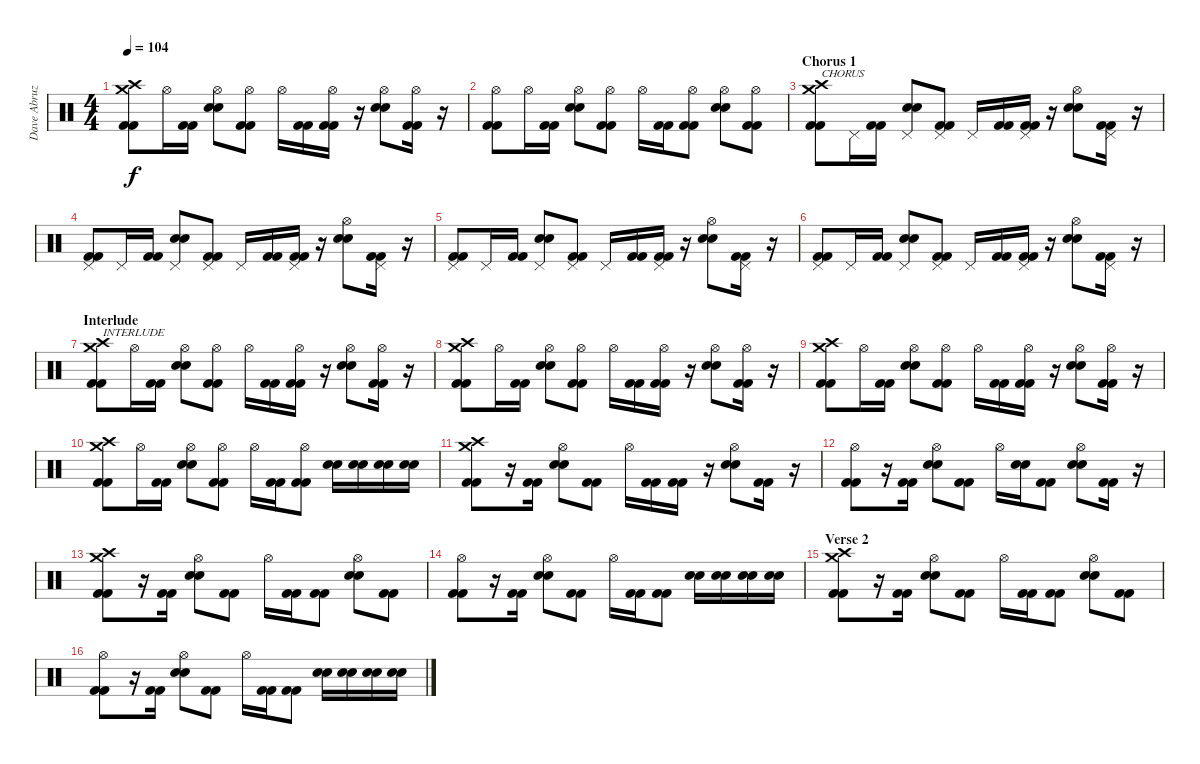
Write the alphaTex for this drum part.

\track ("Dave Abruzzese" "Dave Abruz") {instrument percussion}
\staff {score}
\articulation defaults
\ts (4 4)
\tempo 104
\clef neutral
\ks c
("Crash medium (hit)" "Kick (hit) 2" "Kick (hit) 2" "Crash high (hit)").8{dy f} "Hi-Hat (open)".16 ("Kick (hit) 2" "Kick (hit) 2").16 ("Electric Snare (hit)" "Electric Snare (hit)" "Hi-Hat (open)").8 ("Kick (hit) 2" "Kick (hit) 2" "Hi-Hat (open)").8 "Hi-Hat (open)".16 ("Kick (hit) 2" "Kick (hit) 2").16 ("Kick (hit) 2" "Kick (hit) 2" "Hi-Hat (open)").16 r.16 ("Electric Snare (hit)" "Electric Snare (hit)" "Hi-Hat (open)").8 ("Kick (hit) 2" "Kick (hit) 2" "Hi-Hat (open)").16 r.16 |
("Kick (hit) 2" "Kick (hit) 2" "Hi-Hat (open)").8 "Hi-Hat (open)".16 ("Kick (hit) 2" "Kick (hit) 2").16 ("Electric Snare (hit)" "Electric Snare (hit)" "Hi-Hat (open)").8 ("Kick (hit) 2" "Kick (hit) 2" "Hi-Hat (open)").8 "Hi-Hat (open)".16 ("Kick (hit) 2" "Kick (hit) 2").16 ("Kick (hit) 2" "Kick (hit) 2" "Hi-Hat (open)").8 ("Electric Snare (hit)" "Electric Snare (hit)" "Hi-Hat (open)").8 ("Kick (hit) 2" "Kick (hit) 2" "Hi-Hat (open)").8 |
\section ("" "Chorus 1")
("Crash medium (hit)" "Kick (hit) 2" "Kick (hit) 2" "Crash high (hit)").8{txt "CHORUS"} "Pedal Hi-Hat (hit)".16 ("Kick (hit) 2" "Kick (hit) 2").16 ("Electric Snare (hit)" "Electric Snare (hit)" "Pedal Hi-Hat (hit)").8 ("Kick (hit) 2" "Kick (hit) 2" "Pedal Hi-Hat (hit)").8 "Pedal Hi-Hat (hit)".16 ("Kick (hit) 2" "Kick (hit) 2").16 ("Kick (hit) 2" "Kick (hit) 2" "Pedal Hi-Hat (hit)").16 r.16 ("Electric Snare (hit)" "Electric Snare (hit)" "Hi-Hat (open)").8 ("Kick (hit) 2" "Kick (hit) 2" "Pedal Hi-Hat (hit)").16 r.16 |
("Kick (hit) 2" "Kick (hit) 2" "Pedal Hi-Hat (hit)").8 "Pedal Hi-Hat (hit)".16 ("Kick (hit) 2" "Kick (hit) 2").16 ("Electric Snare (hit)" "Electric Snare (hit)" "Pedal Hi-Hat (hit)").8 ("Kick (hit) 2" "Kick (hit) 2" "Pedal Hi-Hat (hit)").8 "Pedal Hi-Hat (hit)".16 ("Kick (hit) 2" "Kick (hit) 2").16 ("Kick (hit) 2" "Kick (hit) 2" "Pedal Hi-Hat (hit)").16 r.16 ("Electric Snare (hit)" "Electric Snare (hit)" "Hi-Hat (open)").8 ("Kick (hit) 2" "Kick (hit) 2" "Pedal Hi-Hat (hit)").16 r.16 |
("Kick (hit) 2" "Kick (hit) 2" "Pedal Hi-Hat (hit)").8 "Pedal Hi-Hat (hit)".16 ("Kick (hit) 2" "Kick (hit) 2").16 ("Electric Snare (hit)" "Electric Snare (hit)" "Pedal Hi-Hat (hit)").8 ("Kick (hit) 2" "Kick (hit) 2" "Pedal Hi-Hat (hit)").8 "Pedal Hi-Hat (hit)".16 ("Kick (hit) 2" "Kick (hit) 2").16 ("Kick (hit) 2" "Kick (hit) 2" "Pedal Hi-Hat (hit)").16 r.16 ("Electric Snare (hit)" "Electric Snare (hit)" "Hi-Hat (open)").8 ("Kick (hit) 2" "Kick (hit) 2" "Pedal Hi-Hat (hit)").16 r.16 |
("Kick (hit) 2" "Kick (hit) 2" "Pedal Hi-Hat (hit)").8 "Pedal Hi-Hat (hit)".16 ("Kick (hit) 2" "Kick (hit) 2").16 ("Electric Snare (hit)" "Electric Snare (hit)" "Pedal Hi-Hat (hit)").8 ("Kick (hit) 2" "Kick (hit) 2" "Pedal Hi-Hat (hit)").8 "Pedal Hi-Hat (hit)".16 ("Kick (hit) 2" "Kick (hit) 2").16 ("Kick (hit) 2" "Kick (hit) 2" "Pedal Hi-Hat (hit)").16 r.16 ("Electric Snare (hit)" "Electric Snare (hit)" "Hi-Hat (open)").8 ("Kick (hit) 2" "Kick (hit) 2" "Pedal Hi-Hat (hit)").16 r.16 |
\section ("" "Interlude")
("Crash medium (hit)" "Kick (hit) 2" "Kick (hit) 2" "Crash high (hit)").8{txt "INTERLUDE"} "Hi-Hat (open)".16 ("Kick (hit) 2" "Kick (hit) 2").16 ("Electric Snare (hit)" "Electric Snare (hit)" "Hi-Hat (open)").8 ("Kick (hit) 2" "Kick (hit) 2" "Hi-Hat (open)").8 "Hi-Hat (open)".16 ("Kick (hit) 2" "Kick (hit) 2").16 ("Kick (hit) 2" "Kick (hit) 2" "Hi-Hat (open)").16 r.16 ("Electric Snare (hit)" "Electric Snare (hit)" "Hi-Hat (open)").8 ("Kick (hit) 2" "Kick (hit) 2" "Hi-Hat (open)").16 r.16 |
("Crash medium (hit)" "Kick (hit) 2" "Kick (hit) 2" "Crash high (hit)").8 "Hi-Hat (open)".16 ("Kick (hit) 2" "Kick (hit) 2").16 ("Electric Snare (hit)" "Electric Snare (hit)" "Hi-Hat (open)").8 ("Kick (hit) 2" "Kick (hit) 2" "Hi-Hat (open)").8 "Hi-Hat (open)".16 ("Kick (hit) 2" "Kick (hit) 2").16 ("Kick (hit) 2" "Kick (hit) 2" "Hi-Hat (open)").16 r.16 ("Electric Snare (hit)" "Electric Snare (hit)" "Hi-Hat (open)").8 ("Kick (hit) 2" "Kick (hit) 2" "Hi-Hat (open)").16 r.16 |
("Crash medium (hit)" "Kick (hit) 2" "Kick (hit) 2" "Crash high (hit)").8 "Hi-Hat (open)".16 ("Kick (hit) 2" "Kick (hit) 2").16 ("Electric Snare (hit)" "Electric Snare (hit)" "Hi-Hat (open)").8 ("Kick (hit) 2" "Kick (hit) 2" "Hi-Hat (open)").8 "Hi-Hat (open)".16 ("Kick (hit) 2" "Kick (hit) 2").16 ("Kick (hit) 2" "Kick (hit) 2" "Hi-Hat (open)").16 r.16 ("Electric Snare (hit)" "Electric Snare (hit)" "Hi-Hat (open)").8 ("Kick (hit) 2" "Kick (hit) 2" "Hi-Hat (open)").16 r.16 |
("Crash medium (hit)" "Kick (hit) 2" "Kick (hit) 2" "Crash high (hit)").8 "Hi-Hat (open)".16 ("Kick (hit) 2" "Kick (hit) 2").16 ("Electric Snare (hit)" "Electric Snare (hit)" "Hi-Hat (open)").8 ("Kick (hit) 2" "Kick (hit) 2" "Hi-Hat (open)").8 "Hi-Hat (open)".16 ("Kick (hit) 2" "Kick (hit) 2").16 ("Kick (hit) 2" "Kick (hit) 2" "Hi-Hat (open)").8 ("Electric Snare (hit)" "Electric Snare (hit)").16 ("Electric Snare (hit)" "Electric Snare (hit)").16 ("Electric Snare (hit)" "Electric Snare (hit)").16 ("Electric Snare (hit)" "Electric Snare (hit)").16 |
("Crash medium (hit)" "Kick (hit) 2" "Kick (hit) 2" "Crash high (hit)").8 r.16 ("Kick (hit) 2" "Kick (hit) 2").16 ("Electric Snare (hit)" "Electric Snare (hit)" "Hi-Hat (open)").8 ("Kick (hit) 2" "Kick (hit) 2").8 "Hi-Hat (open)".16 ("Kick (hit) 2" "Kick (hit) 2").16 ("Kick (hit) 2" "Kick (hit) 2").16 r.16 ("Electric Snare (hit)" "Electric Snare (hit)" "Hi-Hat (open)").8 ("Kick (hit) 2" "Kick (hit) 2").16 r.16 |
("Kick (hit) 2" "Kick (hit) 2" "Hi-Hat (open)").8 r.16 ("Kick (hit) 2" "Kick (hit) 2").16 ("Electric Snare (hit)" "Electric Snare (hit)" "Hi-Hat (open)").8 ("Kick (hit) 2" "Kick (hit) 2").8 "Hi-Hat (open)".16 ("Electric Snare (hit)" "Electric Snare (hit)").16 ("Kick (hit) 2" "Kick (hit) 2").8 ("Electric Snare (hit)" "Electric Snare (hit)" "Hi-Hat (open)").8 ("Kick (hit) 2" "Kick (hit) 2").16 r.16 |
("Crash medium (hit)" "Kick (hit) 2" "Kick (hit) 2" "Crash high (hit)").8 r.16 ("Kick (hit) 2" "Kick (hit) 2").16 ("Electric Snare (hit)" "Electric Snare (hit)" "Hi-Hat (open)").8 ("Kick (hit) 2" "Kick (hit) 2").8 "Hi-Hat (open)".16 ("Kick (hit) 2" "Kick (hit) 2").16 ("Kick (hit) 2" "Kick (hit) 2").8 ("Electric Snare (hit)" "Electric Snare (hit)" "Hi-Hat (open)").8 ("Kick (hit) 2" "Kick (hit) 2").8 |
("Kick (hit) 2" "Kick (hit) 2" "Hi-Hat (open)").8 r.16 ("Kick (hit) 2" "Kick (hit) 2").16 ("Electric Snare (hit)" "Electric Snare (hit)" "Hi-Hat (open)").8 ("Kick (hit) 2" "Kick (hit) 2").8 "Hi-Hat (open)".16 ("Kick (hit) 2" "Kick (hit) 2").16 ("Kick (hit) 2" "Kick (hit) 2").8 ("Electric Snare (hit)" "Electric Snare (hit)").16 ("Electric Snare (hit)" "Electric Snare (hit)").16 ("Electric Snare (hit)" "Electric Snare (hit)").16 ("Electric Snare (hit)" "Electric Snare (hit)").16 |
\section ("" "Verse 2")
("Crash medium (hit)" "Kick (hit) 2" "Kick (hit) 2" "Crash high (hit)").8 r.16 ("Kick (hit) 2" "Kick (hit) 2").16 ("Electric Snare (hit)" "Electric Snare (hit)" "Hi-Hat (open)").8 ("Kick (hit) 2" "Kick (hit) 2").8 "Hi-Hat (open)".16 ("Kick (hit) 2" "Kick (hit) 2").16 ("Kick (hit) 2" "Kick (hit) 2").8 ("Electric Snare (hit)" "Electric Snare (hit)" "Hi-Hat (open)").8 ("Kick (hit) 2" "Kick (hit) 2").8 |
("Kick (hit) 2" "Kick (hit) 2" "Hi-Hat (open)").8 r.16 ("Kick (hit) 2" "Kick (hit) 2").16 ("Electric Snare (hit)" "Electric Snare (hit)" "Hi-Hat (open)").8 ("Kick (hit) 2" "Kick (hit) 2").8 "Hi-Hat (open)".16 ("Kick (hit) 2" "Kick (hit) 2").16 ("Kick (hit) 2" "Kick (hit) 2").8 ("Electric Snare (hit)" "Electric Snare (hit)").16 ("Electric Snare (hit)" "Electric Snare (hit)").16 ("Electric Snare (hit)" "Electric Snare (hit)").16 ("Electric Snare (hit)" "Electric Snare (hit)").16
